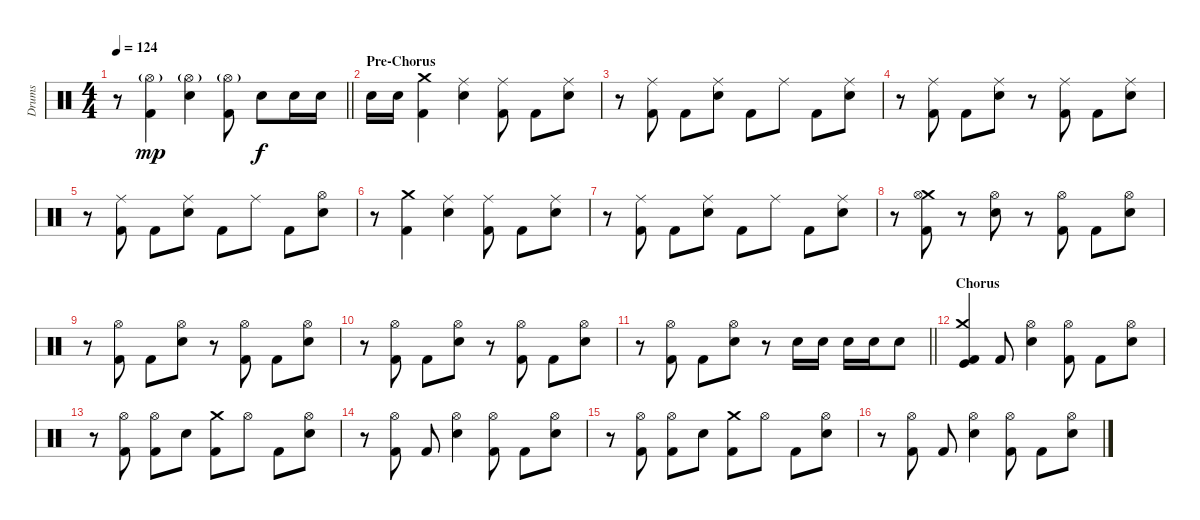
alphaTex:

\track ("Drums" "Drums") {instrument percussion}
\staff {score}
\articulation defaults
\ts (4 4)
\tempo 124
\clef neutral
\barLineRight lightlight
\ks c
r.8{dy mp} ("Kick (hit) 2" "Hi-Hat (open)"{g}).4 ("Electric Snare (hit)" "Hi-Hat (open)"{g}).4 ("Kick (hit) 2" "Hi-Hat (open)"{g}).8 "Electric Snare (hit)".8{dy f} "Electric Snare (hit)".16 "Electric Snare (hit)".16 |
\section ("" "Pre-Chorus")
"Electric Snare (hit)".16 "Electric Snare (hit)".16 ("Crash medium (hit)" "Kick (hit) 2").4 ("Electric Snare (hit)" "Ride (middle)").4 ("Kick (hit) 2" "Ride (middle)").8 "Kick (hit) 2".8 ("Electric Snare (hit)" "Ride (middle)").8 |
r.8 ("Kick (hit) 2" "Ride (middle)").8 "Kick (hit) 2".8 ("Electric Snare (hit)" "Ride (middle)").8 "Kick (hit) 2".8 "Ride (middle)".8 "Kick (hit) 2".8 ("Electric Snare (hit)" "Ride (middle)").8 |
r.8 ("Kick (hit) 2" "Ride (middle)").8 "Kick (hit) 2".8 ("Electric Snare (hit)" "Ride (middle)").8 r.8 ("Kick (hit) 2" "Ride (middle)").8 "Kick (hit) 2".8 ("Electric Snare (hit)" "Ride (middle)").8 |
r.8 ("Kick (hit) 2" "Ride (middle)").8 "Kick (hit) 2".8 ("Electric Snare (hit)" "Ride (middle)").8 "Kick (hit) 2".8 "Ride (middle)".8 "Kick (hit) 2".8 ("Hi-Hat (open)" "Electric Snare (hit)").8 |
r.8 ("Crash medium (hit)" "Kick (hit) 2").4 ("Electric Snare (hit)" "Ride (middle)").4 ("Kick (hit) 2" "Ride (middle)").8 "Kick (hit) 2".8 ("Electric Snare (hit)" "Ride (middle)").8 |
r.8 ("Kick (hit) 2" "Ride (middle)").8 "Kick (hit) 2".8 ("Electric Snare (hit)" "Ride (middle)").8 "Kick (hit) 2".8 "Ride (middle)".8 "Kick (hit) 2".8 ("Electric Snare (hit)" "Ride (middle)").8 |
r.8 ("Crash medium (hit)" "Kick (hit) 2" "Hi-Hat (open)").8 r.8 ("Electric Snare (hit)" "Hi-Hat (open)").8 r.8 ("Kick (hit) 2" "Hi-Hat (open)").8 "Kick (hit) 2".8 ("Electric Snare (hit)" "Hi-Hat (open)").8 |
r.8 ("Kick (hit) 2" "Hi-Hat (open)").8 "Kick (hit) 2".8 ("Electric Snare (hit)" "Hi-Hat (open)").8 r.8 ("Kick (hit) 2" "Hi-Hat (open)").8 "Kick (hit) 2".8 ("Electric Snare (hit)" "Hi-Hat (open)").8 |
r.8 ("Kick (hit) 2" "Hi-Hat (open)").8 "Kick (hit) 2".8 ("Electric Snare (hit)" "Hi-Hat (open)").8 r.8 ("Kick (hit) 2" "Hi-Hat (open)").8 "Kick (hit) 2".8 ("Electric Snare (hit)" "Hi-Hat (open)").8 |
\barLineRight lightlight
r.8 ("Kick (hit) 2" "Hi-Hat (open)").8 "Kick (hit) 2".8 ("Electric Snare (hit)" "Hi-Hat (open)").8 r.8 "Electric Snare (hit)".16 "Electric Snare (hit)".16 "Electric Snare (hit)".16 "Electric Snare (hit)".16 "Electric Snare (hit)".8 |
\section ("" "Chorus")
("Crash medium (hit)" "Kick (hit)" "Kick (hit) 2").4 "Kick (hit) 2".8 ("Electric Snare (hit)" "Hi-Hat (open)").4 ("Hi-Hat (open)" "Kick (hit) 2").8 "Kick (hit) 2".8 ("Electric Snare (hit)" "Hi-Hat (open)").8 |
r.8 ("Hi-Hat (open)" "Kick (hit) 2").8 ("Hi-Hat (open)" "Kick (hit) 2").8 "Electric Snare (hit)".8 ("Crash medium (hit)" "Kick (hit) 2").8 "Hi-Hat (open)".8 "Kick (hit) 2".8 ("Electric Snare (hit)" "Hi-Hat (open)").8 |
r.8 ("Hi-Hat (open)" "Kick (hit) 2").8 "Kick (hit) 2".8 ("Electric Snare (hit)" "Hi-Hat (open)").4 ("Hi-Hat (open)" "Kick (hit) 2").8 "Kick (hit) 2".8 ("Electric Snare (hit)" "Hi-Hat (open)").8 |
r.8 ("Hi-Hat (open)" "Kick (hit) 2").8 ("Hi-Hat (open)" "Kick (hit) 2").8 "Electric Snare (hit)".8 ("Crash medium (hit)" "Kick (hit) 2").8 "Hi-Hat (open)".8 "Kick (hit) 2".8 ("Electric Snare (hit)" "Hi-Hat (open)").8 |
r.8 ("Hi-Hat (open)" "Kick (hit) 2").8 "Kick (hit) 2".8 ("Electric Snare (hit)" "Hi-Hat (open)").4 ("Hi-Hat (open)" "Kick (hit) 2").8 "Kick (hit) 2".8 ("Electric Snare (hit)" "Hi-Hat (open)").8
